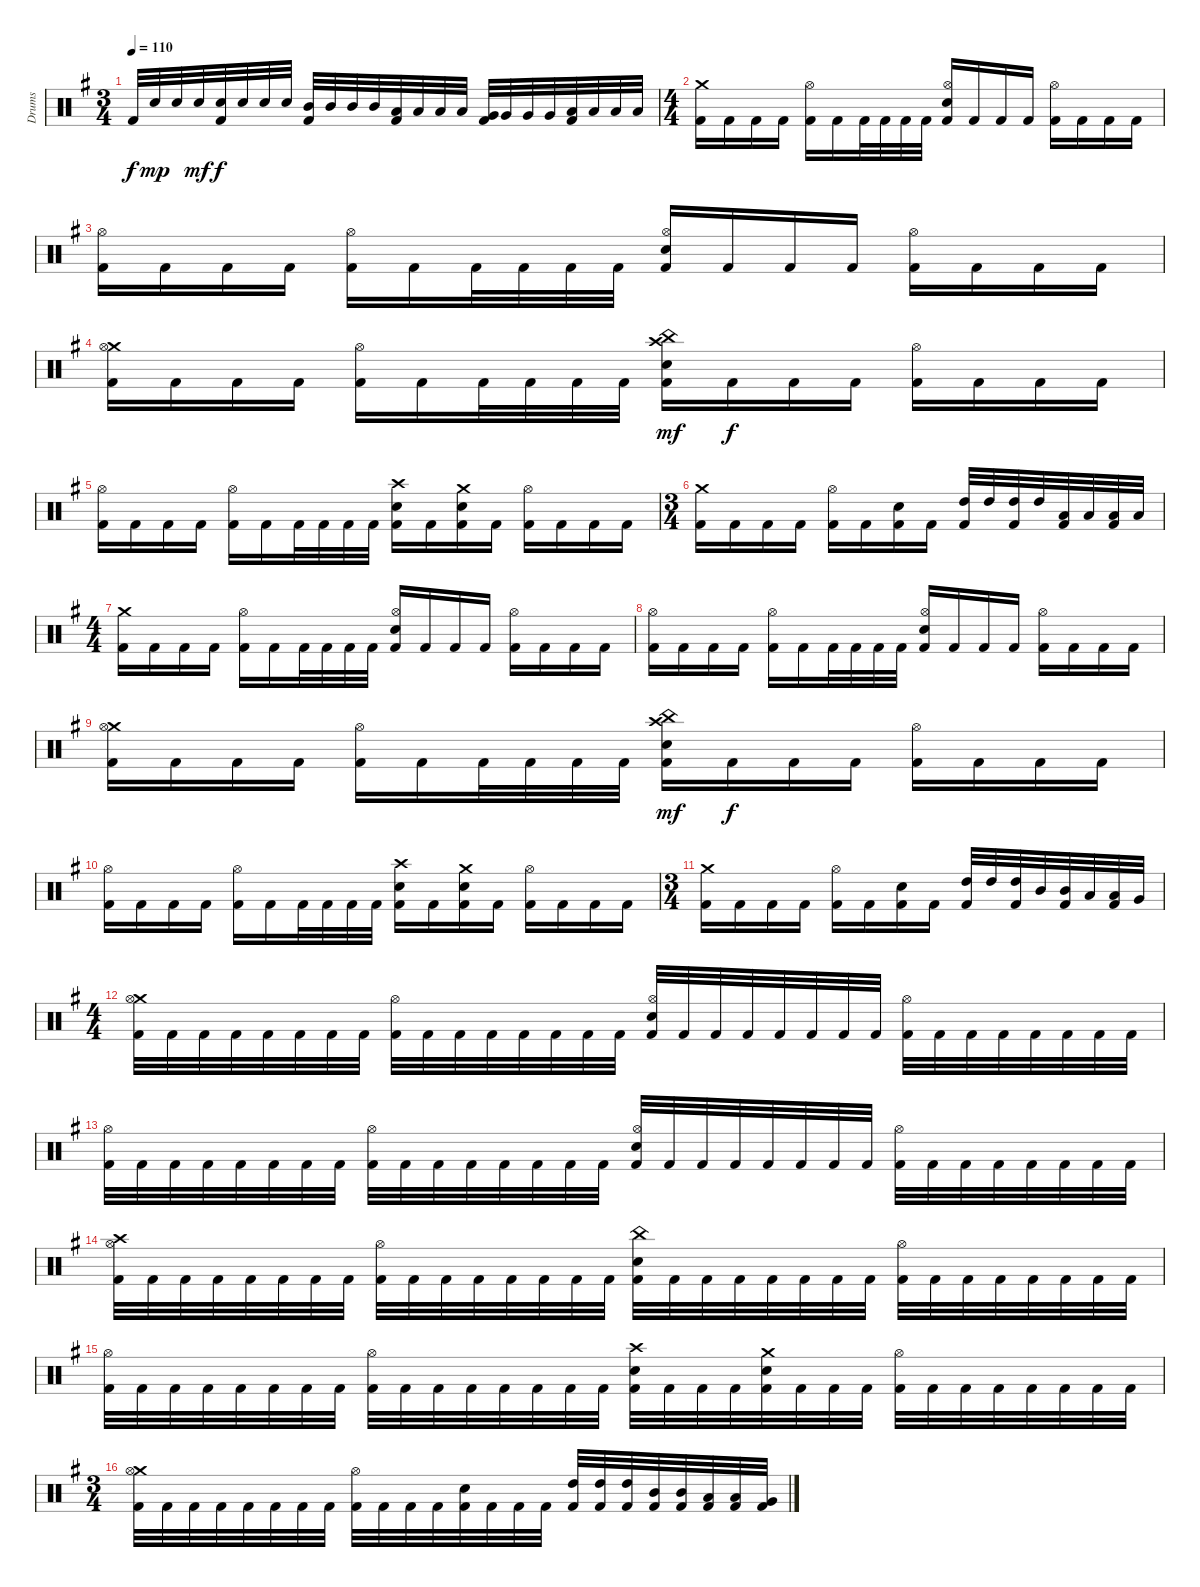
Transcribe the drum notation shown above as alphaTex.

\track ("Drums" "Drums") {instrument percussion}
\staff {score}
\articulation defaults
\ts (3 4)
\tempo 110
\clef neutral
\ks eminor "Kick (hit) 2".32{dy f} "Snare (hit) 2".32{dy mp} "Snare (hit) 2".32 "Snare (hit) 2".32{dy mf}
("Snare (hit) 2" "Kick (hit) 2").32{dy f} "Snare (hit) 2".32 "Snare (hit) 2".32 "Snare (hit) 2".32 ("Mid Tom (hit)" "Kick (hit) 2").32 "Mid Tom (hit)".32 "Mid Tom (hit)".32 "Mid Tom (hit)".32 ("Low Tom (hit)" "Kick (hit) 2").32 "Low Tom (hit)".32 "Low Tom (hit)".32 "Low Tom (hit)".32 ("Very Low Tom (hit)" "Kick (hit) 2").32 "Very Low Tom (hit)".32 "Very Low Tom (hit)".32 "Very Low Tom (hit)".32 ("Low Floor Tom (hit)" "Kick (hit) 2").32 "Low Floor Tom (hit)".32 "Low Floor Tom (hit)".32 "Low Floor Tom (hit)".32 |
\ts (4 4)
("Crash medium (hit)" "Kick (hit) 2").16 "Kick (hit) 2".16 "Kick (hit) 2".16 "Kick (hit) 2".16 ("Hi-Hat (open)" "Kick (hit) 2").16 "Kick (hit) 2".16 "Kick (hit) 2".32 "Kick (hit) 2".32 "Kick (hit) 2".32 "Kick (hit) 2".32 ("Hi-Hat (open)" "Electric Snare (hit)" "Kick (hit) 2").16 "Kick (hit) 2".16 "Kick (hit) 2".16 "Kick (hit) 2".16 ("Hi-Hat (open)" "Kick (hit) 2").16 "Kick (hit) 2".16 "Kick (hit) 2".16 "Kick (hit) 2".16 |
("Hi-Hat (open)" "Kick (hit) 2").16 "Kick (hit) 2".16 "Kick (hit) 2".16 "Kick (hit) 2".16 ("Hi-Hat (open)" "Kick (hit) 2").16 "Kick (hit) 2".16 "Kick (hit) 2".32 "Kick (hit) 2".32 "Kick (hit) 2".32 "Kick (hit) 2".32 ("Hi-Hat (open)" "Electric Snare (hit)" "Kick (hit) 2").16 "Kick (hit) 2".16 "Kick (hit) 2".16 "Kick (hit) 2".16 ("Hi-Hat (open)" "Kick (hit) 2").16 "Kick (hit) 2".16 "Kick (hit) 2".16 "Kick (hit) 2".16 |
("Crash medium (hit)" "Hi-Hat (open)" "Kick (hit) 2").16 "Kick (hit) 2".16 "Kick (hit) 2".16 "Kick (hit) 2".16 ("Hi-Hat (open)" "Kick (hit) 2").16 "Kick (hit) 2".16 "Kick (hit) 2".32 "Kick (hit) 2".32 "Kick (hit) 2".32 "Kick (hit) 2".32 ("China (hit)" "Crash high (hit)" "Electric Snare (hit)" "Kick (hit) 2").16{dy mf} "Kick (hit) 2".16{dy f} "Kick (hit) 2".16 "Kick (hit) 2".16 ("Hi-Hat (open)" "Kick (hit) 2").16 "Kick (hit) 2".16 "Kick (hit) 2".16 "Kick (hit) 2".16 |
("Hi-Hat (open)" "Kick (hit) 2").16 "Kick (hit) 2".16 "Kick (hit) 2".16 "Kick (hit) 2".16 ("Hi-Hat (open)" "Kick (hit) 2").16 "Kick (hit) 2".16 "Kick (hit) 2".32 "Kick (hit) 2".32 "Kick (hit) 2".32 "Kick (hit) 2".32 ("Crash high (hit)" "Electric Snare (hit)" "Kick (hit) 2").16 "Kick (hit) 2".16 ("Crash medium (hit)" "Electric Snare (hit)" "Kick (hit) 2").16 "Kick (hit) 2".16 ("Hi-Hat (open)" "Kick (hit) 2").16 "Kick (hit) 2".16 "Kick (hit) 2".16 "Kick (hit) 2".16 |
\ts (3 4)
("Crash medium (hit)" "Kick (hit) 2").16 "Kick (hit) 2".16 "Kick (hit) 2".16 "Kick (hit) 2".16 ("Hi-Hat (open)" "Kick (hit) 2").16 "Kick (hit) 2".16 ("Electric Snare (hit)" "Kick (hit) 2").16 "Kick (hit) 2".16 ("High Tom (hit)" "Kick (hit) 2").32 "High Tom (hit)".32 ("High Tom (hit)" "Kick (hit) 2").32 "High Tom (hit)".32 ("Low Tom (hit)" "Kick (hit) 2").32 "Low Tom (hit)".32 ("Low Tom (hit)" "Kick (hit) 2").32 "Low Tom (hit)".32 |
\ts (4 4)
("Crash medium (hit)" "Kick (hit) 2").16 "Kick (hit) 2".16 "Kick (hit) 2".16 "Kick (hit) 2".16 ("Hi-Hat (open)" "Kick (hit) 2").16 "Kick (hit) 2".16 "Kick (hit) 2".32 "Kick (hit) 2".32 "Kick (hit) 2".32 "Kick (hit) 2".32 ("Hi-Hat (open)" "Electric Snare (hit)" "Kick (hit) 2").16 "Kick (hit) 2".16 "Kick (hit) 2".16 "Kick (hit) 2".16 ("Hi-Hat (open)" "Kick (hit) 2").16 "Kick (hit) 2".16 "Kick (hit) 2".16 "Kick (hit) 2".16 |
("Hi-Hat (open)" "Kick (hit) 2").16 "Kick (hit) 2".16 "Kick (hit) 2".16 "Kick (hit) 2".16 ("Hi-Hat (open)" "Kick (hit) 2").16 "Kick (hit) 2".16 "Kick (hit) 2".32 "Kick (hit) 2".32 "Kick (hit) 2".32 "Kick (hit) 2".32 ("Hi-Hat (open)" "Electric Snare (hit)" "Kick (hit) 2").16 "Kick (hit) 2".16 "Kick (hit) 2".16 "Kick (hit) 2".16 ("Hi-Hat (open)" "Kick (hit) 2").16 "Kick (hit) 2".16 "Kick (hit) 2".16 "Kick (hit) 2".16 |
("Crash medium (hit)" "Hi-Hat (open)" "Kick (hit) 2").16 "Kick (hit) 2".16 "Kick (hit) 2".16 "Kick (hit) 2".16 ("Hi-Hat (open)" "Kick (hit) 2").16 "Kick (hit) 2".16 "Kick (hit) 2".32 "Kick (hit) 2".32 "Kick (hit) 2".32 "Kick (hit) 2".32 ("China (hit)" "Crash high (hit)" "Electric Snare (hit)" "Kick (hit) 2").16{dy mf} "Kick (hit) 2".16{dy f} "Kick (hit) 2".16 "Kick (hit) 2".16 ("Hi-Hat (open)" "Kick (hit) 2").16 "Kick (hit) 2".16 "Kick (hit) 2".16 "Kick (hit) 2".16 |
("Hi-Hat (open)" "Kick (hit) 2").16 "Kick (hit) 2".16 "Kick (hit) 2".16 "Kick (hit) 2".16 ("Hi-Hat (open)" "Kick (hit) 2").16 "Kick (hit) 2".16 "Kick (hit) 2".32 "Kick (hit) 2".32 "Kick (hit) 2".32 "Kick (hit) 2".32 ("Crash high (hit)" "Electric Snare (hit)" "Kick (hit) 2").16 "Kick (hit) 2".16 ("Crash medium (hit)" "Electric Snare (hit)" "Kick (hit) 2").16 "Kick (hit) 2".16 ("Hi-Hat (open)" "Kick (hit) 2").16 "Kick (hit) 2".16 "Kick (hit) 2".16 "Kick (hit) 2".16 |
\ts (3 4)
("Crash medium (hit)" "Kick (hit) 2").16 "Kick (hit) 2".16 "Kick (hit) 2".16 "Kick (hit) 2".16 ("Hi-Hat (open)" "Kick (hit) 2").16 "Kick (hit) 2".16 ("Electric Snare (hit)" "Kick (hit) 2").16 "Kick (hit) 2".16 ("High Tom (hit)" "Kick (hit) 2").32 "High Tom (hit)".32 ("High Tom (hit)" "Kick (hit) 2").32 "Mid Tom (hit)".32 ("Mid Tom (hit)" "Kick (hit) 2").32 "Low Tom (hit)".32 ("Low Tom (hit)" "Kick (hit) 2").32 "Very Low Tom (hit)".32 |
\ts (4 4)
("Crash medium (hit)" "Hi-Hat (open)" "Kick (hit) 2").32 "Kick (hit) 2".32 "Kick (hit) 2".32 "Kick (hit) 2".32 "Kick (hit) 2".32 "Kick (hit) 2".32 "Kick (hit) 2".32 "Kick (hit) 2".32 ("Hi-Hat (open)" "Kick (hit) 2").32 "Kick (hit) 2".32 "Kick (hit) 2".32 "Kick (hit) 2".32 "Kick (hit) 2".32 "Kick (hit) 2".32 "Kick (hit) 2".32 "Kick (hit) 2".32 ("Hi-Hat (open)" "Electric Snare (hit)" "Kick (hit) 2").32 "Kick (hit) 2".32 "Kick (hit) 2".32 "Kick (hit) 2".32 "Kick (hit) 2".32 "Kick (hit) 2".32 "Kick (hit) 2".32 "Kick (hit) 2".32 ("Hi-Hat (open)" "Kick (hit) 2").32 "Kick (hit) 2".32 "Kick (hit) 2".32 "Kick (hit) 2".32 "Kick (hit) 2".32 "Kick (hit) 2".32 "Kick (hit) 2".32 "Kick (hit) 2".32 |
("Hi-Hat (open)" "Kick (hit) 2").32 "Kick (hit) 2".32 "Kick (hit) 2".32 "Kick (hit) 2".32 "Kick (hit) 2".32 "Kick (hit) 2".32 "Kick (hit) 2".32 "Kick (hit) 2".32 ("Hi-Hat (open)" "Kick (hit) 2").32 "Kick (hit) 2".32 "Kick (hit) 2".32 "Kick (hit) 2".32 "Kick (hit) 2".32 "Kick (hit) 2".32 "Kick (hit) 2".32 "Kick (hit) 2".32 ("Hi-Hat (open)" "Electric Snare (hit)" "Kick (hit) 2").32 "Kick (hit) 2".32 "Kick (hit) 2".32 "Kick (hit) 2".32 "Kick (hit) 2".32 "Kick (hit) 2".32 "Kick (hit) 2".32 "Kick (hit) 2".32 ("Hi-Hat (open)" "Kick (hit) 2").32 "Kick (hit) 2".32 "Kick (hit) 2".32 "Kick (hit) 2".32 "Kick (hit) 2".32 "Kick (hit) 2".32 "Kick (hit) 2".32 "Kick (hit) 2".32 |
("Crash high (hit)" "Hi-Hat (open)" "Kick (hit) 2").32 "Kick (hit) 2".32 "Kick (hit) 2".32 "Kick (hit) 2".32 "Kick (hit) 2".32 "Kick (hit) 2".32 "Kick (hit) 2".32 "Kick (hit) 2".32 ("Hi-Hat (open)" "Kick (hit) 2").32 "Kick (hit) 2".32 "Kick (hit) 2".32 "Kick (hit) 2".32 "Kick (hit) 2".32 "Kick (hit) 2".32 "Kick (hit) 2".32 "Kick (hit) 2".32 ("China (hit)" "Electric Snare (hit)" "Kick (hit) 2").32 "Kick (hit) 2".32 "Kick (hit) 2".32 "Kick (hit) 2".32 "Kick (hit) 2".32 "Kick (hit) 2".32 "Kick (hit) 2".32 "Kick (hit) 2".32 ("Hi-Hat (open)" "Kick (hit) 2").32 "Kick (hit) 2".32 "Kick (hit) 2".32 "Kick (hit) 2".32 "Kick (hit) 2".32 "Kick (hit) 2".32 "Kick (hit) 2".32 "Kick (hit) 2".32 |
("Hi-Hat (open)" "Kick (hit) 2").32 "Kick (hit) 2".32 "Kick (hit) 2".32 "Kick (hit) 2".32 "Kick (hit) 2".32 "Kick (hit) 2".32 "Kick (hit) 2".32 "Kick (hit) 2".32 ("Hi-Hat (open)" "Kick (hit) 2").32 "Kick (hit) 2".32 "Kick (hit) 2".32 "Kick (hit) 2".32 "Kick (hit) 2".32 "Kick (hit) 2".32 "Kick (hit) 2".32 "Kick (hit) 2".32 ("Crash high (hit)" "Electric Snare (hit)" "Kick (hit) 2").32 "Kick (hit) 2".32 "Kick (hit) 2".32 "Kick (hit) 2".32 ("Crash medium (hit)" "Electric Snare (hit)" "Kick (hit) 2").32 "Kick (hit) 2".32 "Kick (hit) 2".32 "Kick (hit) 2".32 ("Hi-Hat (open)" "Kick (hit) 2").32 "Kick (hit) 2".32 "Kick (hit) 2".32 "Kick (hit) 2".32 "Kick (hit) 2".32 "Kick (hit) 2".32 "Kick (hit) 2".32 "Kick (hit) 2".32 |
\ts (3 4)
("Crash medium (hit)" "Hi-Hat (open)" "Kick (hit) 2").32 "Kick (hit) 2".32 "Kick (hit) 2".32 "Kick (hit) 2".32 "Kick (hit) 2".32 "Kick (hit) 2".32 "Kick (hit) 2".32 "Kick (hit) 2".32 ("Hi-Hat (open)" "Kick (hit) 2").32 "Kick (hit) 2".32 "Kick (hit) 2".32 "Kick (hit) 2".32 ("Electric Snare (hit)" "Kick (hit) 2").32 "Kick (hit) 2".32 "Kick (hit) 2".32 "Kick (hit) 2".32 ("High Tom (hit)" "Kick (hit) 2").32 ("High Tom (hit)" "Kick (hit) 2").32 ("High Tom (hit)" "Kick (hit) 2").32 ("Mid Tom (hit)" "Kick (hit) 2").32 ("Mid Tom (hit)" "Kick (hit) 2").32 ("Low Tom (hit)" "Kick (hit) 2").32 ("Low Tom (hit)" "Kick (hit) 2").32 ("Very Low Tom (hit)" "Kick (hit) 2").32
